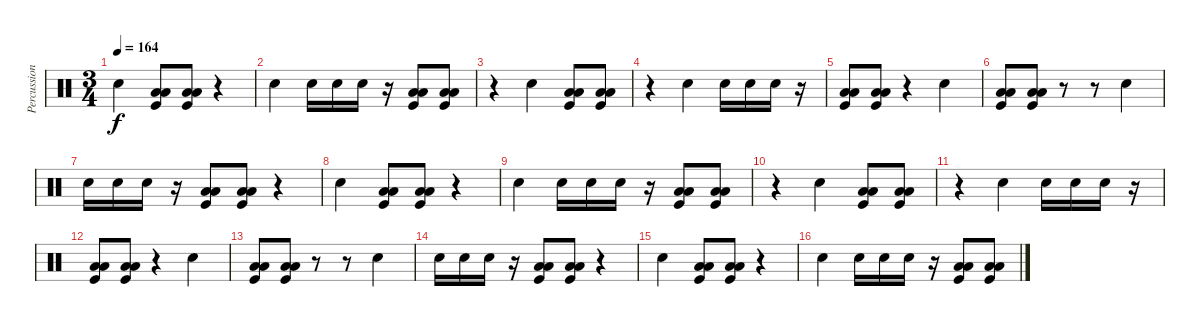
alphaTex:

\track ("Percussion" "Percussion") {instrument percussion}
\staff {score}
\articulation defaults
\ts (3 4)
\tempo 164
\clef neutral
\ks c "Electric Snare (hit)".4{dy f}
("Kick (hit)" "Low Floor Tom (hit)" "Low Floor Tom (hit)").8 ("Kick (hit)" "Low Floor Tom (hit)" "Low Floor Tom (hit)").8 r.4 |
"Electric Snare (hit)".4 "Electric Snare (hit)".16 "Electric Snare (hit)".16 "Electric Snare (hit)".16 r.16 ("Kick (hit)" "Low Floor Tom (hit)" "Low Floor Tom (hit)").8 ("Kick (hit)" "Low Floor Tom (hit)" "Low Floor Tom (hit)").8 |
r.4 "Electric Snare (hit)".4 ("Kick (hit)" "Low Floor Tom (hit)" "Low Floor Tom (hit)").8 ("Kick (hit)" "Low Floor Tom (hit)" "Low Floor Tom (hit)").8 |
r.4 "Electric Snare (hit)".4 "Electric Snare (hit)".16 "Electric Snare (hit)".16 "Electric Snare (hit)".16 r.16 |
("Kick (hit)" "Low Floor Tom (hit)" "Low Floor Tom (hit)").8 ("Kick (hit)" "Low Floor Tom (hit)" "Low Floor Tom (hit)").8 r.4 "Electric Snare (hit)".4 |
("Kick (hit)" "Low Floor Tom (hit)" "Low Floor Tom (hit)").8 ("Kick (hit)" "Low Floor Tom (hit)" "Low Floor Tom (hit)").8 r.8 r.8 "Electric Snare (hit)".4 |
"Electric Snare (hit)".16 "Electric Snare (hit)".16 "Electric Snare (hit)".16 r.16 ("Kick (hit)" "Low Floor Tom (hit)" "Low Floor Tom (hit)").8 ("Kick (hit)" "Low Floor Tom (hit)" "Low Floor Tom (hit)").8 r.4 |
"Electric Snare (hit)".4 ("Kick (hit)" "Low Floor Tom (hit)" "Low Floor Tom (hit)").8 ("Kick (hit)" "Low Floor Tom (hit)" "Low Floor Tom (hit)").8 r.4 |
"Electric Snare (hit)".4 "Electric Snare (hit)".16 "Electric Snare (hit)".16 "Electric Snare (hit)".16 r.16 ("Kick (hit)" "Low Floor Tom (hit)" "Low Floor Tom (hit)").8 ("Kick (hit)" "Low Floor Tom (hit)" "Low Floor Tom (hit)").8 |
r.4 "Electric Snare (hit)".4 ("Kick (hit)" "Low Floor Tom (hit)" "Low Floor Tom (hit)").8 ("Kick (hit)" "Low Floor Tom (hit)" "Low Floor Tom (hit)").8 |
r.4 "Electric Snare (hit)".4 "Electric Snare (hit)".16 "Electric Snare (hit)".16 "Electric Snare (hit)".16 r.16 |
("Kick (hit)" "Low Floor Tom (hit)" "Low Floor Tom (hit)").8 ("Kick (hit)" "Low Floor Tom (hit)" "Low Floor Tom (hit)").8 r.4 "Electric Snare (hit)".4 |
("Kick (hit)" "Low Floor Tom (hit)" "Low Floor Tom (hit)").8 ("Kick (hit)" "Low Floor Tom (hit)" "Low Floor Tom (hit)").8 r.8 r.8 "Electric Snare (hit)".4 |
"Electric Snare (hit)".16 "Electric Snare (hit)".16 "Electric Snare (hit)".16 r.16 ("Kick (hit)" "Low Floor Tom (hit)" "Low Floor Tom (hit)").8 ("Kick (hit)" "Low Floor Tom (hit)" "Low Floor Tom (hit)").8 r.4 |
"Electric Snare (hit)".4 ("Kick (hit)" "Low Floor Tom (hit)" "Low Floor Tom (hit)").8 ("Kick (hit)" "Low Floor Tom (hit)" "Low Floor Tom (hit)").8 r.4 |
"Electric Snare (hit)".4 "Electric Snare (hit)".16 "Electric Snare (hit)".16 "Electric Snare (hit)".16 r.16 ("Kick (hit)" "Low Floor Tom (hit)" "Low Floor Tom (hit)").8 ("Kick (hit)" "Low Floor Tom (hit)" "Low Floor Tom (hit)").8
